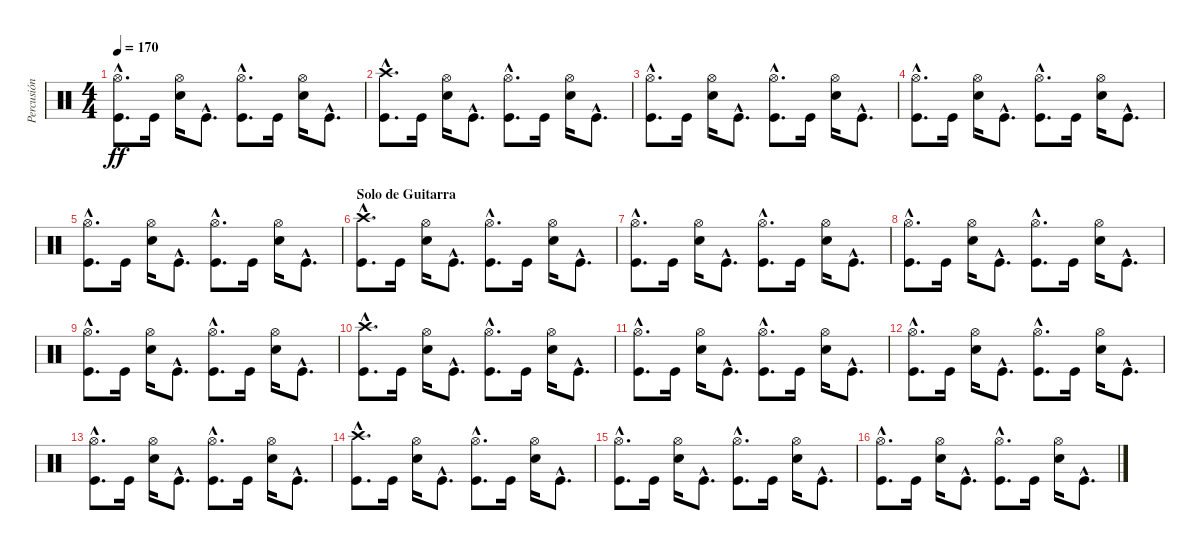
\track ("Percusión" "Percusión") {instrument percussion}
\staff {score}
\articulation defaults
\ts (4 4)
\tempo 170
\clef neutral
\ks c
("Hi-Hat (open)"{hac} "Kick (hit)"{hac}).8{d dy ff} "Kick (hit)".16 ("Hi-Hat (open)" "Snare (hit) 2").16 "Kick (hit)"{hac}.8{d} ("Hi-Hat (open)"{hac} "Kick (hit)"{hac}).8{d} "Kick (hit)".16 ("Hi-Hat (open)" "Snare (hit) 2").16 "Kick (hit)"{hac}.8{d} |
("Crash high (hit)"{hac} "Kick (hit)"{hac}).8{d} "Kick (hit)".16 ("Hi-Hat (open)" "Snare (hit) 2").16 "Kick (hit)"{hac}.8{d} ("Hi-Hat (open)"{hac} "Kick (hit)"{hac}).8{d} "Kick (hit)".16 ("Hi-Hat (open)" "Snare (hit) 2").16 "Kick (hit)"{hac}.8{d} |
("Hi-Hat (open)"{hac} "Kick (hit)"{hac}).8{d} "Kick (hit)".16 ("Hi-Hat (open)" "Snare (hit) 2").16 "Kick (hit)"{hac}.8{d} ("Hi-Hat (open)"{hac} "Kick (hit)"{hac}).8{d} "Kick (hit)".16 ("Hi-Hat (open)" "Snare (hit) 2").16 "Kick (hit)"{hac}.8{d} |
("Hi-Hat (open)"{hac} "Kick (hit)"{hac}).8{d} "Kick (hit)".16 ("Hi-Hat (open)" "Snare (hit) 2").16 "Kick (hit)"{hac}.8{d} ("Hi-Hat (open)"{hac} "Kick (hit)"{hac}).8{d} "Kick (hit)".16 ("Hi-Hat (open)" "Snare (hit) 2").16 "Kick (hit)"{hac}.8{d} |
("Hi-Hat (open)"{hac} "Kick (hit)"{hac}).8{d} "Kick (hit)".16 ("Hi-Hat (open)" "Snare (hit) 2").16 "Kick (hit)"{hac}.8{d} ("Hi-Hat (open)"{hac} "Kick (hit)"{hac}).8{d} "Kick (hit)".16 ("Hi-Hat (open)" "Snare (hit) 2").16 "Kick (hit)"{hac}.8{d} |
\section ("" "Solo de Guitarra")
("Crash high (hit)"{hac} "Kick (hit)"{hac}).8{d} "Kick (hit)".16 ("Hi-Hat (open)" "Snare (hit) 2").16 "Kick (hit)"{hac}.8{d} ("Hi-Hat (open)"{hac} "Kick (hit)"{hac}).8{d} "Kick (hit)".16 ("Hi-Hat (open)" "Snare (hit) 2").16 "Kick (hit)"{hac}.8{d} |
("Hi-Hat (open)"{hac} "Kick (hit)"{hac}).8{d} "Kick (hit)".16 ("Hi-Hat (open)" "Snare (hit) 2").16 "Kick (hit)"{hac}.8{d} ("Hi-Hat (open)"{hac} "Kick (hit)"{hac}).8{d} "Kick (hit)".16 ("Hi-Hat (open)" "Snare (hit) 2").16 "Kick (hit)"{hac}.8{d} |
("Hi-Hat (open)"{hac} "Kick (hit)"{hac}).8{d} "Kick (hit)".16 ("Hi-Hat (open)" "Snare (hit) 2").16 "Kick (hit)"{hac}.8{d} ("Hi-Hat (open)"{hac} "Kick (hit)"{hac}).8{d} "Kick (hit)".16 ("Hi-Hat (open)" "Snare (hit) 2").16 "Kick (hit)"{hac}.8{d} |
("Hi-Hat (open)"{hac} "Kick (hit)"{hac}).8{d} "Kick (hit)".16 ("Hi-Hat (open)" "Snare (hit) 2").16 "Kick (hit)"{hac}.8{d} ("Hi-Hat (open)"{hac} "Kick (hit)"{hac}).8{d} "Kick (hit)".16 ("Hi-Hat (open)" "Snare (hit) 2").16 "Kick (hit)"{hac}.8{d} |
("Crash high (hit)"{hac} "Kick (hit)"{hac}).8{d} "Kick (hit)".16 ("Hi-Hat (open)" "Snare (hit) 2").16 "Kick (hit)"{hac}.8{d} ("Hi-Hat (open)"{hac} "Kick (hit)"{hac}).8{d} "Kick (hit)".16 ("Hi-Hat (open)" "Snare (hit) 2").16 "Kick (hit)"{hac}.8{d} |
("Hi-Hat (open)"{hac} "Kick (hit)"{hac}).8{d} "Kick (hit)".16 ("Hi-Hat (open)" "Snare (hit) 2").16 "Kick (hit)"{hac}.8{d} ("Hi-Hat (open)"{hac} "Kick (hit)"{hac}).8{d} "Kick (hit)".16 ("Hi-Hat (open)" "Snare (hit) 2").16 "Kick (hit)"{hac}.8{d} |
("Hi-Hat (open)"{hac} "Kick (hit)"{hac}).8{d} "Kick (hit)".16 ("Hi-Hat (open)" "Snare (hit) 2").16 "Kick (hit)"{hac}.8{d} ("Hi-Hat (open)"{hac} "Kick (hit)"{hac}).8{d} "Kick (hit)".16 ("Hi-Hat (open)" "Snare (hit) 2").16 "Kick (hit)"{hac}.8{d} |
("Hi-Hat (open)"{hac} "Kick (hit)"{hac}).8{d} "Kick (hit)".16 ("Hi-Hat (open)" "Snare (hit) 2").16 "Kick (hit)"{hac}.8{d} ("Hi-Hat (open)"{hac} "Kick (hit)"{hac}).8{d} "Kick (hit)".16 ("Hi-Hat (open)" "Snare (hit) 2").16 "Kick (hit)"{hac}.8{d} |
("Crash high (hit)"{hac} "Kick (hit)"{hac}).8{d} "Kick (hit)".16 ("Hi-Hat (open)" "Snare (hit) 2").16 "Kick (hit)"{hac}.8{d} ("Hi-Hat (open)"{hac} "Kick (hit)"{hac}).8{d} "Kick (hit)".16 ("Hi-Hat (open)" "Snare (hit) 2").16 "Kick (hit)"{hac}.8{d} |
("Hi-Hat (open)"{hac} "Kick (hit)"{hac}).8{d} "Kick (hit)".16 ("Hi-Hat (open)" "Snare (hit) 2").16 "Kick (hit)"{hac}.8{d} ("Hi-Hat (open)"{hac} "Kick (hit)"{hac}).8{d} "Kick (hit)".16 ("Hi-Hat (open)" "Snare (hit) 2").16 "Kick (hit)"{hac}.8{d} |
("Hi-Hat (open)"{hac} "Kick (hit)"{hac}).8{d} "Kick (hit)".16 ("Hi-Hat (open)" "Snare (hit) 2").16 "Kick (hit)"{hac}.8{d} ("Hi-Hat (open)"{hac} "Kick (hit)"{hac}).8{d} "Kick (hit)".16 ("Hi-Hat (open)" "Snare (hit) 2").16 "Kick (hit)"{hac}.8{d}
